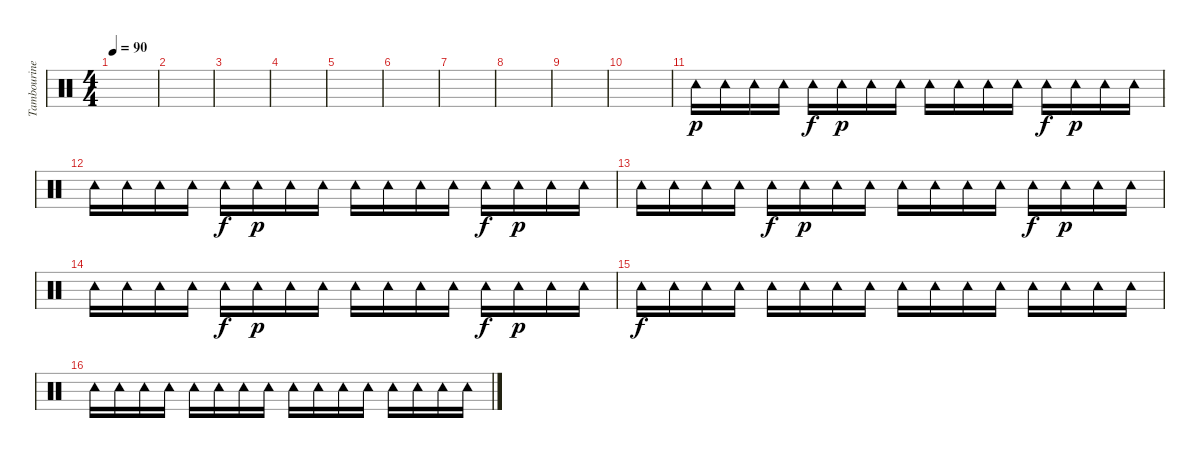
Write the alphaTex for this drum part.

\track ("Tambourine" "Tambourine") {instrument percussion}
\staff {score}
\articulation defaults
\ts (4 4)
\tempo 90
\clef neutral
\ks c
|
|
|
|
|
|
|
|
|
|
"Tambourine (hit)".16{dy p} "Tambourine (hit)".16 "Tambourine (hit)".16 "Tambourine (hit)".16 "Tambourine (hit)".16{dy f} "Tambourine (hit)".16{dy p} "Tambourine (hit)".16 "Tambourine (hit)".16 "Tambourine (hit)".16 "Tambourine (hit)".16 "Tambourine (hit)".16 "Tambourine (hit)".16 "Tambourine (hit)".16{dy f} "Tambourine (hit)".16{dy p} "Tambourine (hit)".16 "Tambourine (hit)".16 |
"Tambourine (hit)".16 "Tambourine (hit)".16 "Tambourine (hit)".16 "Tambourine (hit)".16 "Tambourine (hit)".16{dy f} "Tambourine (hit)".16{dy p} "Tambourine (hit)".16 "Tambourine (hit)".16 "Tambourine (hit)".16 "Tambourine (hit)".16 "Tambourine (hit)".16 "Tambourine (hit)".16 "Tambourine (hit)".16{dy f} "Tambourine (hit)".16{dy p} "Tambourine (hit)".16 "Tambourine (hit)".16 |
"Tambourine (hit)".16 "Tambourine (hit)".16 "Tambourine (hit)".16 "Tambourine (hit)".16 "Tambourine (hit)".16{dy f} "Tambourine (hit)".16{dy p} "Tambourine (hit)".16 "Tambourine (hit)".16 "Tambourine (hit)".16 "Tambourine (hit)".16 "Tambourine (hit)".16 "Tambourine (hit)".16 "Tambourine (hit)".16{dy f} "Tambourine (hit)".16{dy p} "Tambourine (hit)".16 "Tambourine (hit)".16 |
"Tambourine (hit)".16 "Tambourine (hit)".16 "Tambourine (hit)".16 "Tambourine (hit)".16 "Tambourine (hit)".16{dy f} "Tambourine (hit)".16{dy p} "Tambourine (hit)".16 "Tambourine (hit)".16 "Tambourine (hit)".16 "Tambourine (hit)".16 "Tambourine (hit)".16 "Tambourine (hit)".16 "Tambourine (hit)".16{dy f} "Tambourine (hit)".16{dy p} "Tambourine (hit)".16 "Tambourine (hit)".16 |
"Tambourine (hit)".16{dy f} "Tambourine (hit)".16 "Tambourine (hit)".16 "Tambourine (hit)".16 "Tambourine (hit)".16 "Tambourine (hit)".16 "Tambourine (hit)".16 "Tambourine (hit)".16 "Tambourine (hit)".16 "Tambourine (hit)".16 "Tambourine (hit)".16 "Tambourine (hit)".16 "Tambourine (hit)".16 "Tambourine (hit)".16 "Tambourine (hit)".16 "Tambourine (hit)".16 |
"Tambourine (hit)".16 "Tambourine (hit)".16 "Tambourine (hit)".16 "Tambourine (hit)".16 "Tambourine (hit)".16 "Tambourine (hit)".16 "Tambourine (hit)".16 "Tambourine (hit)".16 "Tambourine (hit)".16 "Tambourine (hit)".16 "Tambourine (hit)".16 "Tambourine (hit)".16 "Tambourine (hit)".16 "Tambourine (hit)".16 "Tambourine (hit)".16 "Tambourine (hit)".16
